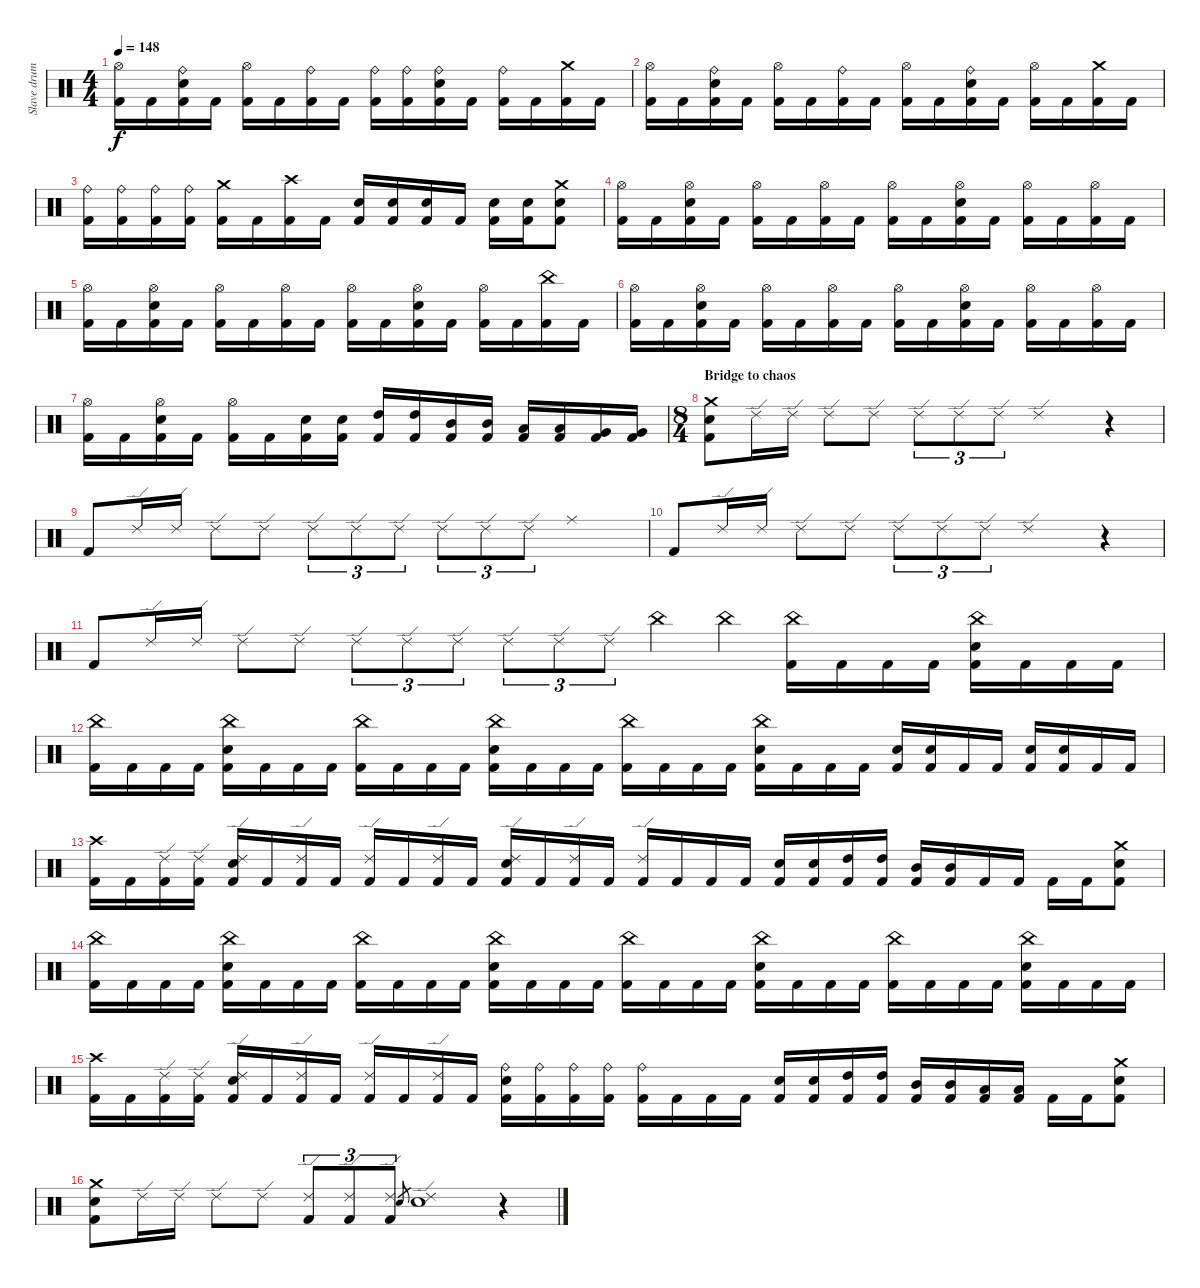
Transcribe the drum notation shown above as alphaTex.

\track ("Slave drum" "Slave drum") {instrument percussion}
\staff {score}
\articulation defaults
\ts (4 4)
\tempo 148
\clef neutral
\ks c
("Hi-Hat (open)" "Kick (hit) 2").16{dy f} "Kick (hit) 2".16 ("Ride (bell)" "Electric Snare (hit)" "Kick (hit) 2").16 "Kick (hit) 2".16 ("Hi-Hat (open)" "Kick (hit) 2").16 "Kick (hit) 2".16 ("Ride (bell)" "Kick (hit) 2").16 "Kick (hit) 2".16 ("Ride (bell)" "Kick (hit) 2").16 ("Ride (bell)" "Kick (hit) 2").16 ("Ride (bell)" "Electric Snare (hit)" "Kick (hit) 2").16 "Kick (hit) 2".16 ("Ride (bell)" "Kick (hit) 2").16 "Kick (hit) 2".16 ("Crash medium (hit)" "Kick (hit) 2").16 "Kick (hit) 2".16 |
("Hi-Hat (open)" "Kick (hit) 2").16 "Kick (hit) 2".16 ("Ride (bell)" "Electric Snare (hit)" "Kick (hit) 2").16 "Kick (hit) 2".16 ("Hi-Hat (open)" "Kick (hit) 2").16 "Kick (hit) 2".16 ("Ride (bell)" "Kick (hit) 2").16 "Kick (hit) 2".16 ("Hi-Hat (open)" "Kick (hit) 2").16 "Kick (hit) 2".16 ("Ride (bell)" "Electric Snare (hit)" "Kick (hit) 2").16 "Kick (hit) 2".16 ("Hi-Hat (open)" "Kick (hit) 2").16 "Kick (hit) 2".16 ("Crash medium (hit)" "Kick (hit) 2").16 "Kick (hit) 2".16 |
("Ride (bell)" "Kick (hit) 2").16 ("Ride (bell)" "Kick (hit) 2").16 ("Ride (bell)" "Kick (hit) 2").16 ("Ride (bell)" "Kick (hit) 2").16 ("Crash medium (hit)" "Kick (hit) 2").16 "Kick (hit) 2".16 ("Crash high (hit)" "Kick (hit) 2").16 "Kick (hit) 2".16 ("Electric Snare (hit)" "Kick (hit) 2").16 ("Electric Snare (hit)" "Kick (hit) 2").16 ("Electric Snare (hit)" "Kick (hit) 2").16 "Kick (hit) 2".16 ("Electric Snare (hit)" "Kick (hit) 2").16 ("Electric Snare (hit)" "Kick (hit) 2").16 ("Crash medium (hit)" "Electric Snare (hit)" "Kick (hit) 2").8 |
("Hi-Hat (open)" "Kick (hit) 2").16 "Kick (hit) 2".16 ("Hi-Hat (open)" "Electric Snare (hit)" "Kick (hit) 2").16 "Kick (hit) 2".16 ("Hi-Hat (open)" "Kick (hit) 2").16 "Kick (hit) 2".16 ("Hi-Hat (open)" "Kick (hit) 2").16 "Kick (hit) 2".16 ("Hi-Hat (open)" "Kick (hit) 2").16 "Kick (hit) 2".16 ("Hi-Hat (open)" "Electric Snare (hit)" "Kick (hit) 2").16 "Kick (hit) 2".16 ("Hi-Hat (open)" "Kick (hit) 2").16 "Kick (hit) 2".16 ("Hi-Hat (open)" "Kick (hit) 2").16 "Kick (hit) 2".16 |
("Hi-Hat (open)" "Kick (hit) 2").16 "Kick (hit) 2".16 ("Hi-Hat (open)" "Electric Snare (hit)" "Kick (hit) 2").16 "Kick (hit) 2".16 ("Hi-Hat (open)" "Kick (hit) 2").16 "Kick (hit) 2".16 ("Hi-Hat (open)" "Kick (hit) 2").16 "Kick (hit) 2".16 ("Hi-Hat (open)" "Kick (hit) 2").16 "Kick (hit) 2".16 ("Hi-Hat (open)" "Electric Snare (hit)" "Kick (hit) 2").16 "Kick (hit) 2".16 ("Hi-Hat (open)" "Kick (hit) 2").16 "Kick (hit) 2".16 ("China (hit)" "Kick (hit) 2").16 "Kick (hit) 2".16 |
("Hi-Hat (open)" "Kick (hit) 2").16 "Kick (hit) 2".16 ("Hi-Hat (open)" "Electric Snare (hit)" "Kick (hit) 2").16 "Kick (hit) 2".16 ("Hi-Hat (open)" "Kick (hit) 2").16 "Kick (hit) 2".16 ("Hi-Hat (open)" "Kick (hit) 2").16 "Kick (hit) 2".16 ("Hi-Hat (open)" "Kick (hit) 2").16 "Kick (hit) 2".16 ("Hi-Hat (open)" "Electric Snare (hit)" "Kick (hit) 2").16 "Kick (hit) 2".16 ("Hi-Hat (open)" "Kick (hit) 2").16 "Kick (hit) 2".16 ("Hi-Hat (open)" "Kick (hit) 2").16 "Kick (hit) 2".16 |
("Hi-Hat (open)" "Kick (hit) 2").16 "Kick (hit) 2".16 ("Hi-Hat (open)" "Electric Snare (hit)" "Kick (hit) 2").16 "Kick (hit) 2".16 ("Hi-Hat (open)" "Kick (hit) 2").16 "Kick (hit) 2".16 ("Electric Snare (hit)" "Kick (hit) 2").16 ("Electric Snare (hit)" "Kick (hit) 2").16 ("High Tom (hit)" "Kick (hit) 2").16 ("High Tom (hit)" "Kick (hit) 2").16 ("Mid Tom (hit)" "Kick (hit) 2").16 ("Mid Tom (hit)" "Kick (hit) 2").16 ("Low Tom (hit)" "Kick (hit) 2").16 ("Low Tom (hit)" "Kick (hit) 2").16 ("Very Low Tom (hit)" "Kick (hit) 2").16 ("Very Low Tom (hit)" "Kick (hit) 2").16 |
\ts (8 4)
\section ("" "Bridge to chaos")
("Crash medium (hit)" "Electric Snare (hit)" "Kick (hit) 2").8 "Ride (edge) 2".16 "Ride (edge) 2".16 "Ride (edge) 2".8 "Ride (edge) 2".8 "Ride (edge) 2".8{tu (3 2)} "Ride (edge) 2".8{tu (3 2)} "Ride (edge) 2".8{tu (3 2)} "Ride (edge) 2".1 r.4 |
"Kick (hit) 2".8 "Ride (edge) 2".16 "Ride (edge) 2".16 "Ride (edge) 2".8 "Ride (edge) 2".8 "Ride (edge) 2".8{tu (3 2)} "Ride (edge) 2".8{tu (3 2)} "Ride (edge) 2".8{tu (3 2)} "Ride (edge) 2".8{tu (3 2)} "Ride (edge) 2".8{tu (3 2)} "Ride (edge) 2".8{tu (3 2)} "Ride (middle)".1 |
"Kick (hit) 2".8 "Ride (edge) 2".16 "Ride (edge) 2".16 "Ride (edge) 2".8 "Ride (edge) 2".8 "Ride (edge) 2".8{tu (3 2)} "Ride (edge) 2".8{tu (3 2)} "Ride (edge) 2".8{tu (3 2)} "Ride (edge) 2".1 r.4 |
"Kick (hit) 2".8 "Ride (edge) 2".16 "Ride (edge) 2".16 "Ride (edge) 2".8 "Ride (edge) 2".8 "Ride (edge) 2".8{tu (3 2)} "Ride (edge) 2".8{tu (3 2)} "Ride (edge) 2".8{tu (3 2)} "Ride (edge) 2".8{tu (3 2)} "Ride (edge) 2".8{tu (3 2)} "Ride (edge) 2".8{tu (3 2)} "China (hit)".4 "China (hit)".4 ("China (hit)" "Kick (hit) 2").16 "Kick (hit) 2".16 "Kick (hit) 2".16 "Kick (hit) 2".16 ("China (hit)" "Electric Snare (hit)" "Kick (hit) 2").16 "Kick (hit) 2".16 "Kick (hit) 2".16 "Kick (hit) 2".16 |
("China (hit)" "Kick (hit) 2").16 "Kick (hit) 2".16 "Kick (hit) 2".16 "Kick (hit) 2".16 ("China (hit)" "Electric Snare (hit)" "Kick (hit) 2").16 "Kick (hit) 2".16 "Kick (hit) 2".16 "Kick (hit) 2".16 ("China (hit)" "Kick (hit) 2").16 "Kick (hit) 2".16 "Kick (hit) 2".16 "Kick (hit) 2".16 ("China (hit)" "Electric Snare (hit)" "Kick (hit) 2").16 "Kick (hit) 2".16 "Kick (hit) 2".16 "Kick (hit) 2".16 ("China (hit)" "Kick (hit) 2").16 "Kick (hit) 2".16 "Kick (hit) 2".16 "Kick (hit) 2".16 ("China (hit)" "Electric Snare (hit)" "Kick (hit) 2").16 "Kick (hit) 2".16 "Kick (hit) 2".16 "Kick (hit) 2".16 ("Electric Snare (hit)" "Kick (hit) 2").16 ("Electric Snare (hit)" "Kick (hit) 2").16 "Kick (hit) 2".16 "Kick (hit) 2".16 ("Electric Snare (hit)" "Kick (hit) 2").16 ("Electric Snare (hit)" "Kick (hit) 2").16 "Kick (hit) 2".16 "Kick (hit) 2".16 |
("Crash high (hit)" "Kick (hit) 2").16 "Kick (hit) 2".16 ("Ride (edge) 2" "Kick (hit) 2").16 ("Ride (edge) 2" "Kick (hit) 2").16 ("Ride (edge) 2" "Electric Snare (hit)" "Kick (hit) 2").16 "Kick (hit) 2".16 ("Ride (edge) 2" "Kick (hit) 2").16 "Kick (hit) 2".16 ("Ride (edge) 2" "Kick (hit) 2").16 "Kick (hit) 2".16 ("Ride (edge) 2" "Kick (hit) 2").16 "Kick (hit) 2".16 ("Ride (edge) 2" "Electric Snare (hit)" "Kick (hit) 2").16 "Kick (hit) 2".16 ("Ride (edge) 2" "Kick (hit) 2").16 "Kick (hit) 2".16 ("Ride (edge) 2" "Kick (hit) 2").16 "Kick (hit) 2".16 "Kick (hit) 2".16 "Kick (hit) 2".16 ("Electric Snare (hit)" "Kick (hit) 2").16 ("Electric Snare (hit)" "Kick (hit) 2").16 ("High Tom (hit)" "Kick (hit) 2").16 ("High Tom (hit)" "Kick (hit) 2").16 ("Mid Tom (hit)" "Kick (hit) 2").16 ("Mid Tom (hit)" "Kick (hit) 2").16 "Kick (hit) 2".16 "Kick (hit) 2".16 "Kick (hit) 2".16 "Kick (hit) 2".16 ("Crash medium (hit)" "Electric Snare (hit)" "Kick (hit) 2").8 |
("China (hit)" "Kick (hit) 2").16 "Kick (hit) 2".16 "Kick (hit) 2".16 "Kick (hit) 2".16 ("China (hit)" "Electric Snare (hit)" "Kick (hit) 2").16 "Kick (hit) 2".16 "Kick (hit) 2".16 "Kick (hit) 2".16 ("China (hit)" "Kick (hit) 2").16 "Kick (hit) 2".16 "Kick (hit) 2".16 "Kick (hit) 2".16 ("China (hit)" "Electric Snare (hit)" "Kick (hit) 2").16 "Kick (hit) 2".16 "Kick (hit) 2".16 "Kick (hit) 2".16 ("China (hit)" "Kick (hit) 2").16 "Kick (hit) 2".16 "Kick (hit) 2".16 "Kick (hit) 2".16 ("China (hit)" "Electric Snare (hit)" "Kick (hit) 2").16 "Kick (hit) 2".16 "Kick (hit) 2".16 "Kick (hit) 2".16 ("China (hit)" "Kick (hit) 2").16 "Kick (hit) 2".16 "Kick (hit) 2".16 "Kick (hit) 2".16 ("China (hit)" "Electric Snare (hit)" "Kick (hit) 2").16 "Kick (hit) 2".16 "Kick (hit) 2".16 "Kick (hit) 2".16 |
("Crash high (hit)" "Kick (hit) 2").16 "Kick (hit) 2".16 ("Ride (edge) 2" "Kick (hit) 2").16 ("Ride (edge) 2" "Kick (hit) 2").16 ("Ride (edge) 2" "Electric Snare (hit)" "Kick (hit) 2").16 "Kick (hit) 2".16 ("Ride (edge) 2" "Kick (hit) 2").16 "Kick (hit) 2".16 ("Ride (edge) 2" "Kick (hit) 2").16 "Kick (hit) 2".16 ("Ride (edge) 2" "Kick (hit) 2").16 "Kick (hit) 2".16 ("Ride (bell)" "Electric Snare (hit)" "Kick (hit) 2").16 ("Ride (bell)" "Kick (hit) 2").16 ("Ride (bell)" "Kick (hit) 2").16 ("Ride (bell)" "Kick (hit) 2").16 ("Ride (bell)" "Kick (hit) 2").16 "Kick (hit) 2".16 "Kick (hit) 2".16 "Kick (hit) 2".16 ("Electric Snare (hit)" "Kick (hit) 2").16 ("Electric Snare (hit)" "Kick (hit) 2").16 ("High Tom (hit)" "Kick (hit) 2").16 ("High Tom (hit)" "Kick (hit) 2").16 ("Mid Tom (hit)" "Kick (hit) 2").16 ("Mid Tom (hit)" "Kick (hit) 2").16 ("Low Tom (hit)" "Kick (hit) 2").16 ("Low Tom (hit)" "Kick (hit) 2").16 "Kick (hit) 2".16 "Kick (hit) 2".16 ("Crash medium (hit)" "Electric Snare (hit)" "Kick (hit) 2").8 |
("Crash medium (hit)" "Electric Snare (hit)" "Kick (hit) 2").8 "Ride (edge) 2".16 "Ride (edge) 2".16 "Ride (edge) 2".8 "Ride (edge) 2".8 ("Ride (edge) 2" "Kick (hit) 2").8{tu (3 2)} ("Ride (edge) 2" "Kick (hit) 2").8{tu (3 2)} ("Ride (edge) 2" "Kick (hit) 2").8{tu (3 2)} "Electric Snare (hit)".8{gr} ("Ride (edge) 2" "Electric Snare (hit)").1 r.4
